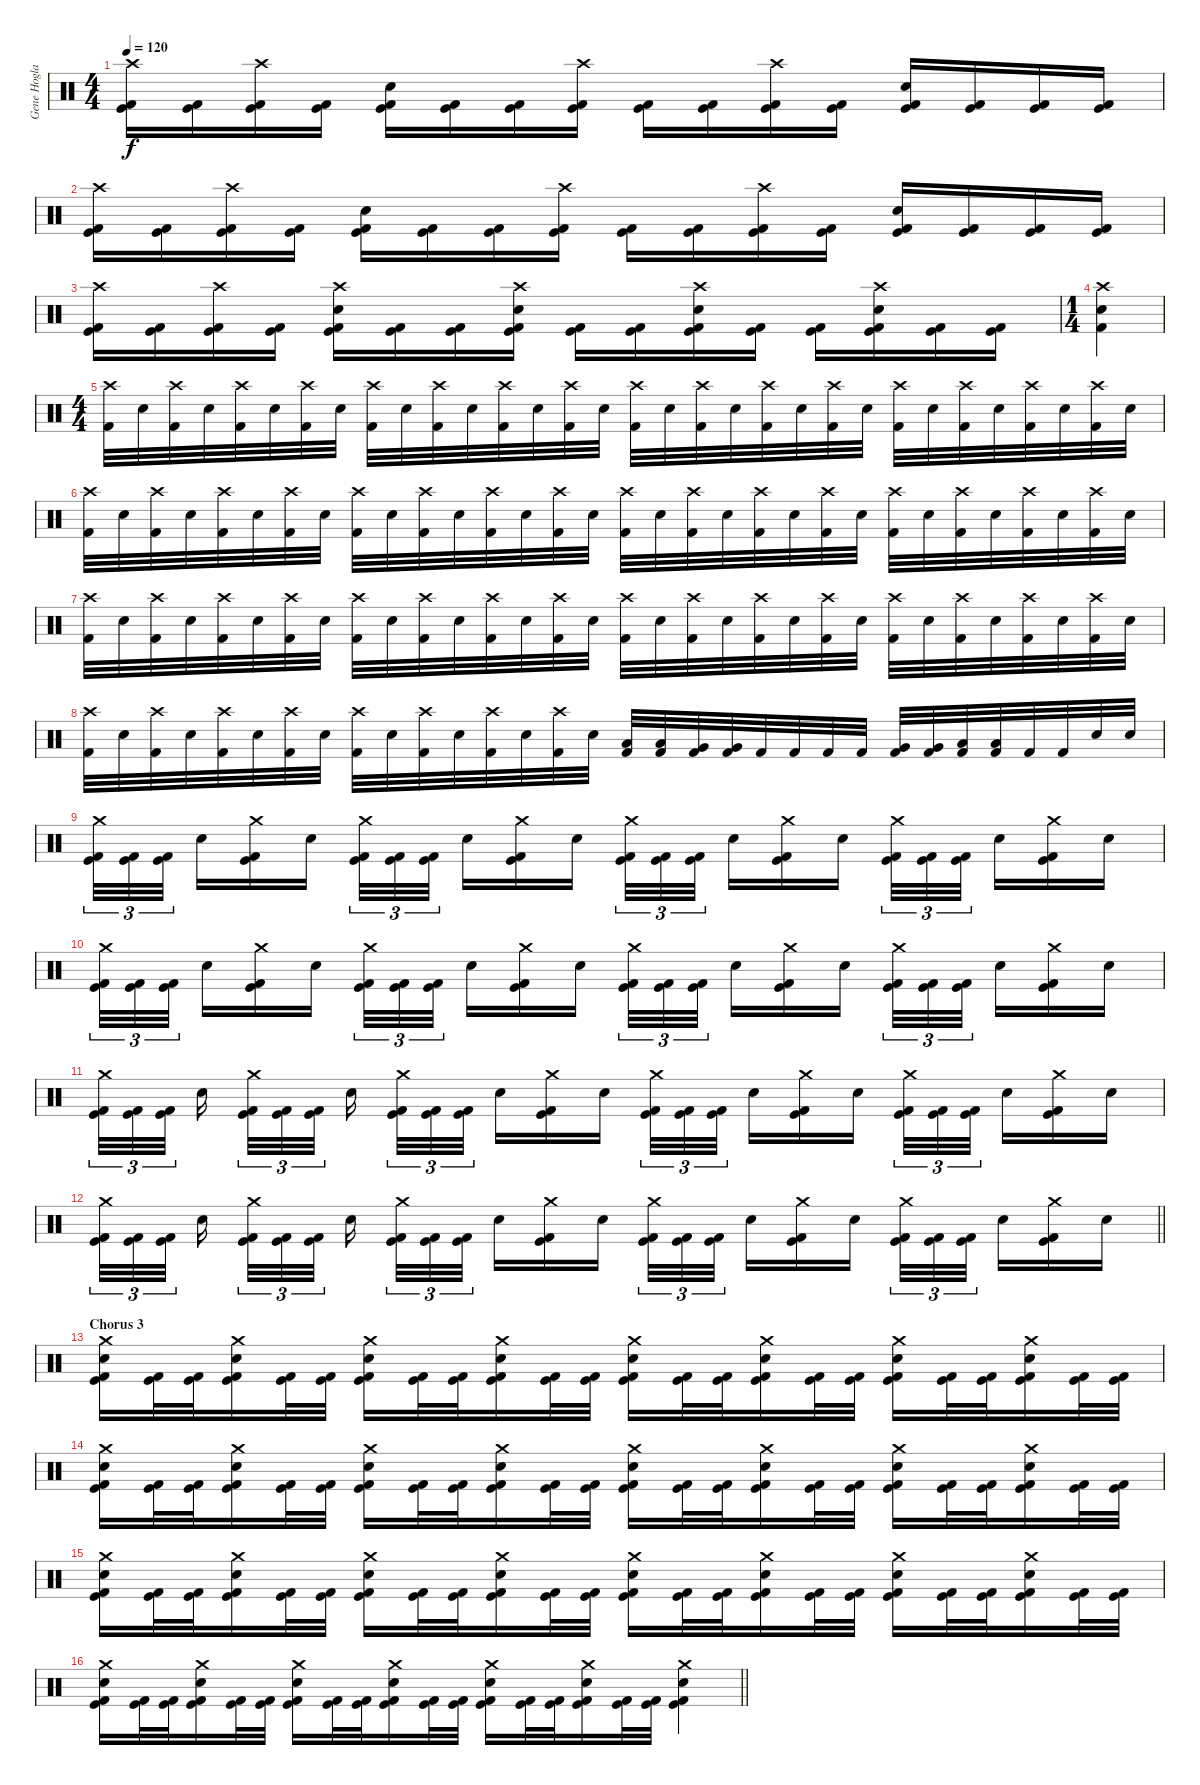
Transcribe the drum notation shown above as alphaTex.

\track ("Gene Hogland" "Gene Hogla") {instrument percussion}
\staff {score}
\articulation defaults
\ts (4 4)
\tempo 120
\clef neutral
\ks c
("Crash high (hit)" "Kick (hit)" "Kick (hit) 2").16{dy f} ("Kick (hit)" "Kick (hit) 2").16 ("Crash high (hit)" "Kick (hit)" "Kick (hit) 2").16 ("Kick (hit)" "Kick (hit) 2").16 ("Electric Snare (hit)" "Kick (hit)" "Kick (hit) 2").16 ("Kick (hit)" "Kick (hit) 2").16 ("Kick (hit)" "Kick (hit) 2").16 ("Crash high (hit)" "Kick (hit)" "Kick (hit) 2").16 ("Kick (hit)" "Kick (hit) 2").16 ("Kick (hit)" "Kick (hit) 2").16 ("Crash high (hit)" "Kick (hit)" "Kick (hit) 2").16 ("Kick (hit)" "Kick (hit) 2").16 ("Electric Snare (hit)" "Kick (hit)" "Kick (hit) 2").16 ("Kick (hit)" "Kick (hit) 2").16 ("Kick (hit)" "Kick (hit) 2").16 ("Kick (hit)" "Kick (hit) 2").16 |
("Crash high (hit)" "Kick (hit)" "Kick (hit) 2").16 ("Kick (hit)" "Kick (hit) 2").16 ("Crash high (hit)" "Kick (hit)" "Kick (hit) 2").16 ("Kick (hit)" "Kick (hit) 2").16 ("Electric Snare (hit)" "Kick (hit)" "Kick (hit) 2").16 ("Kick (hit)" "Kick (hit) 2").16 ("Kick (hit)" "Kick (hit) 2").16 ("Crash high (hit)" "Kick (hit)" "Kick (hit) 2").16 ("Kick (hit)" "Kick (hit) 2").16 ("Kick (hit)" "Kick (hit) 2").16 ("Crash high (hit)" "Kick (hit)" "Kick (hit) 2").16 ("Kick (hit)" "Kick (hit) 2").16 ("Electric Snare (hit)" "Kick (hit)" "Kick (hit) 2").16 ("Kick (hit)" "Kick (hit) 2").16 ("Kick (hit)" "Kick (hit) 2").16 ("Kick (hit)" "Kick (hit) 2").16 |
("Crash high (hit)" "Kick (hit)" "Kick (hit) 2").16 ("Kick (hit)" "Kick (hit) 2").16 ("Crash high (hit)" "Kick (hit)" "Kick (hit) 2").16 ("Kick (hit)" "Kick (hit) 2").16 ("Crash high (hit)" "Electric Snare (hit)" "Kick (hit)" "Kick (hit) 2").16 ("Kick (hit)" "Kick (hit) 2").16 ("Kick (hit)" "Kick (hit) 2").16 ("Crash high (hit)" "Electric Snare (hit)" "Kick (hit)" "Kick (hit) 2").16 ("Kick (hit)" "Kick (hit) 2").16 ("Kick (hit)" "Kick (hit) 2").16 ("Crash high (hit)" "Electric Snare (hit)" "Kick (hit)" "Kick (hit) 2").16 ("Kick (hit)" "Kick (hit) 2").16 ("Kick (hit)" "Kick (hit) 2").16 ("Crash high (hit)" "Electric Snare (hit)" "Kick (hit)" "Kick (hit) 2").16 ("Kick (hit)" "Kick (hit) 2").16 ("Kick (hit)" "Kick (hit) 2").16 |
\ts (1 4)
("Crash high (hit)" "Kick (hit) 2" "Electric Snare (hit)").4 |
\ts (4 4)
("Crash high (hit)" "Kick (hit) 2").32 "Electric Snare (hit)".32 ("Crash high (hit)" "Kick (hit) 2").32 "Electric Snare (hit)".32 ("Crash high (hit)" "Kick (hit) 2").32 "Electric Snare (hit)".32 ("Crash high (hit)" "Kick (hit) 2").32 "Electric Snare (hit)".32 ("Crash high (hit)" "Kick (hit) 2").32 "Electric Snare (hit)".32 ("Crash high (hit)" "Kick (hit) 2").32 "Electric Snare (hit)".32 ("Crash high (hit)" "Kick (hit) 2").32 "Electric Snare (hit)".32 ("Crash high (hit)" "Kick (hit) 2").32 "Electric Snare (hit)".32 ("Crash high (hit)" "Kick (hit) 2").32 "Electric Snare (hit)".32 ("Crash high (hit)" "Kick (hit) 2").32 "Electric Snare (hit)".32 ("Crash high (hit)" "Kick (hit) 2").32 "Electric Snare (hit)".32 ("Crash high (hit)" "Kick (hit) 2").32 "Electric Snare (hit)".32 ("Crash high (hit)" "Kick (hit) 2").32 "Electric Snare (hit)".32 ("Crash high (hit)" "Kick (hit) 2").32 "Electric Snare (hit)".32 ("Crash high (hit)" "Kick (hit) 2").32 "Electric Snare (hit)".32 ("Crash high (hit)" "Kick (hit) 2").32 "Electric Snare (hit)".32 |
("Crash high (hit)" "Kick (hit) 2").32 "Electric Snare (hit)".32 ("Crash high (hit)" "Kick (hit) 2").32 "Electric Snare (hit)".32 ("Crash high (hit)" "Kick (hit) 2").32 "Electric Snare (hit)".32 ("Crash high (hit)" "Kick (hit) 2").32 "Electric Snare (hit)".32 ("Crash high (hit)" "Kick (hit) 2").32 "Electric Snare (hit)".32 ("Crash high (hit)" "Kick (hit) 2").32 "Electric Snare (hit)".32 ("Crash high (hit)" "Kick (hit) 2").32 "Electric Snare (hit)".32 ("Crash high (hit)" "Kick (hit) 2").32 "Electric Snare (hit)".32 ("Crash high (hit)" "Kick (hit) 2").32 "Electric Snare (hit)".32 ("Crash high (hit)" "Kick (hit) 2").32 "Electric Snare (hit)".32 ("Crash high (hit)" "Kick (hit) 2").32 "Electric Snare (hit)".32 ("Crash high (hit)" "Kick (hit) 2").32 "Electric Snare (hit)".32 ("Crash high (hit)" "Kick (hit) 2").32 "Electric Snare (hit)".32 ("Crash high (hit)" "Kick (hit) 2").32 "Electric Snare (hit)".32 ("Crash high (hit)" "Kick (hit) 2").32 "Electric Snare (hit)".32 ("Crash high (hit)" "Kick (hit) 2").32 "Electric Snare (hit)".32 |
("Crash high (hit)" "Kick (hit) 2").32 "Electric Snare (hit)".32 ("Crash high (hit)" "Kick (hit) 2").32 "Electric Snare (hit)".32 ("Crash high (hit)" "Kick (hit) 2").32 "Electric Snare (hit)".32 ("Crash high (hit)" "Kick (hit) 2").32 "Electric Snare (hit)".32 ("Crash high (hit)" "Kick (hit) 2").32 "Electric Snare (hit)".32 ("Crash high (hit)" "Kick (hit) 2").32 "Electric Snare (hit)".32 ("Crash high (hit)" "Kick (hit) 2").32 "Electric Snare (hit)".32 ("Crash high (hit)" "Kick (hit) 2").32 "Electric Snare (hit)".32 ("Crash high (hit)" "Kick (hit) 2").32 "Electric Snare (hit)".32 ("Crash high (hit)" "Kick (hit) 2").32 "Electric Snare (hit)".32 ("Crash high (hit)" "Kick (hit) 2").32 "Electric Snare (hit)".32 ("Crash high (hit)" "Kick (hit) 2").32 "Electric Snare (hit)".32 ("Crash high (hit)" "Kick (hit) 2").32 "Electric Snare (hit)".32 ("Crash high (hit)" "Kick (hit) 2").32 "Electric Snare (hit)".32 ("Crash high (hit)" "Kick (hit) 2").32 "Electric Snare (hit)".32 ("Crash high (hit)" "Kick (hit) 2").32 "Electric Snare (hit)".32 |
("Crash high (hit)" "Kick (hit) 2").32 "Electric Snare (hit)".32 ("Crash high (hit)" "Kick (hit) 2").32 "Electric Snare (hit)".32 ("Crash high (hit)" "Kick (hit) 2").32 "Electric Snare (hit)".32 ("Crash high (hit)" "Kick (hit) 2").32 "Electric Snare (hit)".32 ("Crash high (hit)" "Kick (hit) 2").32 "Electric Snare (hit)".32 ("Crash high (hit)" "Kick (hit) 2").32 "Electric Snare (hit)".32 ("Crash high (hit)" "Kick (hit) 2").32 "Electric Snare (hit)".32 ("Crash high (hit)" "Kick (hit) 2").32 "Electric Snare (hit)".32 ("Low Tom (hit)" "Kick (hit) 2").32 ("Low Tom (hit)" "Kick (hit) 2").32 ("Very Low Tom (hit)" "Kick (hit) 2").32 ("Very Low Tom (hit)" "Kick (hit) 2").32 "Kick (hit) 2".32 "Kick (hit) 2".32 "Kick (hit) 2".32 "Kick (hit) 2".32 ("Very Low Tom (hit)" "Kick (hit) 2").32 ("Very Low Tom (hit)" "Kick (hit) 2").32 ("Low Floor Tom (hit)" "Kick (hit) 2").32 ("Low Floor Tom (hit)" "Kick (hit) 2").32 "Kick (hit) 2".32 "Kick (hit) 2".32 "Electric Snare (hit)".32 "Electric Snare (hit)".32 |
("Crash medium (hit)" "Kick (hit)" "Kick (hit) 2").32{tu (3 2)} ("Kick (hit)" "Kick (hit) 2").32{tu (3 2)} ("Kick (hit)" "Kick (hit) 2").32{tu (3 2)} "Electric Snare (hit)".16 ("Crash medium (hit)" "Kick (hit)" "Kick (hit) 2").16 "Electric Snare (hit)".16 ("Crash medium (hit)" "Kick (hit)" "Kick (hit) 2").32{tu (3 2)} ("Kick (hit)" "Kick (hit) 2").32{tu (3 2)} ("Kick (hit)" "Kick (hit) 2").32{tu (3 2)} "Electric Snare (hit)".16 ("Crash medium (hit)" "Kick (hit)" "Kick (hit) 2").16 "Electric Snare (hit)".16 ("Crash medium (hit)" "Kick (hit)" "Kick (hit) 2").32{tu (3 2)} ("Kick (hit)" "Kick (hit) 2").32{tu (3 2)} ("Kick (hit)" "Kick (hit) 2").32{tu (3 2)} "Electric Snare (hit)".16 ("Crash medium (hit)" "Kick (hit)" "Kick (hit) 2").16 "Electric Snare (hit)".16 ("Crash medium (hit)" "Kick (hit)" "Kick (hit) 2").32{tu (3 2)} ("Kick (hit)" "Kick (hit) 2").32{tu (3 2)} ("Kick (hit)" "Kick (hit) 2").32{tu (3 2)} "Electric Snare (hit)".16 ("Crash medium (hit)" "Kick (hit)" "Kick (hit) 2").16 "Electric Snare (hit)".16 |
("Crash medium (hit)" "Kick (hit)" "Kick (hit) 2").32{tu (3 2)} ("Kick (hit)" "Kick (hit) 2").32{tu (3 2)} ("Kick (hit)" "Kick (hit) 2").32{tu (3 2)} "Electric Snare (hit)".16 ("Crash medium (hit)" "Kick (hit)" "Kick (hit) 2").16 "Electric Snare (hit)".16 ("Crash medium (hit)" "Kick (hit)" "Kick (hit) 2").32{tu (3 2)} ("Kick (hit)" "Kick (hit) 2").32{tu (3 2)} ("Kick (hit)" "Kick (hit) 2").32{tu (3 2)} "Electric Snare (hit)".16 ("Crash medium (hit)" "Kick (hit)" "Kick (hit) 2").16 "Electric Snare (hit)".16 ("Crash medium (hit)" "Kick (hit)" "Kick (hit) 2").32{tu (3 2)} ("Kick (hit)" "Kick (hit) 2").32{tu (3 2)} ("Kick (hit)" "Kick (hit) 2").32{tu (3 2)} "Electric Snare (hit)".16 ("Crash medium (hit)" "Kick (hit)" "Kick (hit) 2").16 "Electric Snare (hit)".16 ("Crash medium (hit)" "Kick (hit)" "Kick (hit) 2").32{tu (3 2)} ("Kick (hit)" "Kick (hit) 2").32{tu (3 2)} ("Kick (hit)" "Kick (hit) 2").32{tu (3 2)} "Electric Snare (hit)".16 ("Crash medium (hit)" "Kick (hit)" "Kick (hit) 2").16 "Electric Snare (hit)".16 |
("Crash medium (hit)" "Kick (hit)" "Kick (hit) 2").32{tu (3 2)} ("Kick (hit)" "Kick (hit) 2").32{tu (3 2)} ("Kick (hit)" "Kick (hit) 2").32{tu (3 2)} "Electric Snare (hit)".16 ("Crash medium (hit)" "Kick (hit)" "Kick (hit) 2").32{tu (3 2)} ("Kick (hit)" "Kick (hit) 2").32{tu (3 2)} ("Kick (hit)" "Kick (hit) 2").32{tu (3 2)} "Electric Snare (hit)".16 ("Crash medium (hit)" "Kick (hit)" "Kick (hit) 2").32{tu (3 2)} ("Kick (hit)" "Kick (hit) 2").32{tu (3 2)} ("Kick (hit)" "Kick (hit) 2").32{tu (3 2)} "Electric Snare (hit)".16 ("Crash medium (hit)" "Kick (hit)" "Kick (hit) 2").16 "Electric Snare (hit)".16 ("Crash medium (hit)" "Kick (hit)" "Kick (hit) 2").32{tu (3 2)} ("Kick (hit)" "Kick (hit) 2").32{tu (3 2)} ("Kick (hit)" "Kick (hit) 2").32{tu (3 2)} "Electric Snare (hit)".16 ("Crash medium (hit)" "Kick (hit)" "Kick (hit) 2").16 "Electric Snare (hit)".16 ("Crash medium (hit)" "Kick (hit)" "Kick (hit) 2").32{tu (3 2)} ("Kick (hit)" "Kick (hit) 2").32{tu (3 2)} ("Kick (hit)" "Kick (hit) 2").32{tu (3 2)} "Electric Snare (hit)".16 ("Crash medium (hit)" "Kick (hit)" "Kick (hit) 2").16 "Electric Snare (hit)".16 |
\barLineRight lightlight
("Crash medium (hit)" "Kick (hit)" "Kick (hit) 2").32{tu (3 2)} ("Kick (hit)" "Kick (hit) 2").32{tu (3 2)} ("Kick (hit)" "Kick (hit) 2").32{tu (3 2)} "Electric Snare (hit)".16 ("Crash medium (hit)" "Kick (hit)" "Kick (hit) 2").32{tu (3 2)} ("Kick (hit)" "Kick (hit) 2").32{tu (3 2)} ("Kick (hit)" "Kick (hit) 2").32{tu (3 2)} "Electric Snare (hit)".16 ("Crash medium (hit)" "Kick (hit)" "Kick (hit) 2").32{tu (3 2)} ("Kick (hit)" "Kick (hit) 2").32{tu (3 2)} ("Kick (hit)" "Kick (hit) 2").32{tu (3 2)} "Electric Snare (hit)".16 ("Crash medium (hit)" "Kick (hit)" "Kick (hit) 2").16 "Electric Snare (hit)".16 ("Crash medium (hit)" "Kick (hit)" "Kick (hit) 2").32{tu (3 2)} ("Kick (hit)" "Kick (hit) 2").32{tu (3 2)} ("Kick (hit)" "Kick (hit) 2").32{tu (3 2)} "Electric Snare (hit)".16 ("Crash medium (hit)" "Kick (hit)" "Kick (hit) 2").16 "Electric Snare (hit)".16 ("Crash medium (hit)" "Kick (hit)" "Kick (hit) 2").32{tu (3 2)} ("Kick (hit)" "Kick (hit) 2").32{tu (3 2)} ("Kick (hit)" "Kick (hit) 2").32{tu (3 2)} "Electric Snare (hit)".16 ("Crash medium (hit)" "Kick (hit)" "Kick (hit) 2").16 "Electric Snare (hit)".16 |
\section ("" "Chorus 3")
("Crash medium (hit)" "Electric Snare (hit)" "Kick (hit)" "Kick (hit) 2").16 ("Kick (hit)" "Kick (hit) 2").32 ("Kick (hit)" "Kick (hit) 2").32 ("Crash medium (hit)" "Electric Snare (hit)" "Kick (hit)" "Kick (hit) 2").16 ("Kick (hit)" "Kick (hit) 2").32 ("Kick (hit)" "Kick (hit) 2").32 ("Crash medium (hit)" "Electric Snare (hit)" "Kick (hit)" "Kick (hit) 2").16 ("Kick (hit)" "Kick (hit) 2").32 ("Kick (hit)" "Kick (hit) 2").32 ("Crash medium (hit)" "Electric Snare (hit)" "Kick (hit)" "Kick (hit) 2").16 ("Kick (hit)" "Kick (hit) 2").32 ("Kick (hit)" "Kick (hit) 2").32 ("Crash medium (hit)" "Electric Snare (hit)" "Kick (hit)" "Kick (hit) 2").16 ("Kick (hit)" "Kick (hit) 2").32 ("Kick (hit)" "Kick (hit) 2").32 ("Crash medium (hit)" "Electric Snare (hit)" "Kick (hit)" "Kick (hit) 2").16 ("Kick (hit)" "Kick (hit) 2").32 ("Kick (hit)" "Kick (hit) 2").32 ("Crash medium (hit)" "Electric Snare (hit)" "Kick (hit)" "Kick (hit) 2").16 ("Kick (hit)" "Kick (hit) 2").32 ("Kick (hit)" "Kick (hit) 2").32 ("Crash medium (hit)" "Electric Snare (hit)" "Kick (hit)" "Kick (hit) 2").16 ("Kick (hit)" "Kick (hit) 2").32 ("Kick (hit)" "Kick (hit) 2").32 |
("Crash medium (hit)" "Electric Snare (hit)" "Kick (hit)" "Kick (hit) 2").16 ("Kick (hit)" "Kick (hit) 2").32 ("Kick (hit)" "Kick (hit) 2").32 ("Crash medium (hit)" "Electric Snare (hit)" "Kick (hit)" "Kick (hit) 2").16 ("Kick (hit)" "Kick (hit) 2").32 ("Kick (hit)" "Kick (hit) 2").32 ("Crash medium (hit)" "Electric Snare (hit)" "Kick (hit)" "Kick (hit) 2").16 ("Kick (hit)" "Kick (hit) 2").32 ("Kick (hit)" "Kick (hit) 2").32 ("Crash medium (hit)" "Electric Snare (hit)" "Kick (hit)" "Kick (hit) 2").16 ("Kick (hit)" "Kick (hit) 2").32 ("Kick (hit)" "Kick (hit) 2").32 ("Crash medium (hit)" "Electric Snare (hit)" "Kick (hit)" "Kick (hit) 2").16 ("Kick (hit)" "Kick (hit) 2").32 ("Kick (hit)" "Kick (hit) 2").32 ("Crash medium (hit)" "Electric Snare (hit)" "Kick (hit)" "Kick (hit) 2").16 ("Kick (hit)" "Kick (hit) 2").32 ("Kick (hit)" "Kick (hit) 2").32 ("Crash medium (hit)" "Electric Snare (hit)" "Kick (hit)" "Kick (hit) 2").16 ("Kick (hit)" "Kick (hit) 2").32 ("Kick (hit)" "Kick (hit) 2").32 ("Crash medium (hit)" "Electric Snare (hit)" "Kick (hit)" "Kick (hit) 2").16 ("Kick (hit)" "Kick (hit) 2").32 ("Kick (hit)" "Kick (hit) 2").32 |
("Crash medium (hit)" "Electric Snare (hit)" "Kick (hit)" "Kick (hit) 2").16 ("Kick (hit)" "Kick (hit) 2").32 ("Kick (hit)" "Kick (hit) 2").32 ("Crash medium (hit)" "Electric Snare (hit)" "Kick (hit)" "Kick (hit) 2").16 ("Kick (hit)" "Kick (hit) 2").32 ("Kick (hit)" "Kick (hit) 2").32 ("Crash medium (hit)" "Electric Snare (hit)" "Kick (hit)" "Kick (hit) 2").16 ("Kick (hit)" "Kick (hit) 2").32 ("Kick (hit)" "Kick (hit) 2").32 ("Crash medium (hit)" "Electric Snare (hit)" "Kick (hit)" "Kick (hit) 2").16 ("Kick (hit)" "Kick (hit) 2").32 ("Kick (hit)" "Kick (hit) 2").32 ("Crash medium (hit)" "Electric Snare (hit)" "Kick (hit)" "Kick (hit) 2").16 ("Kick (hit)" "Kick (hit) 2").32 ("Kick (hit)" "Kick (hit) 2").32 ("Crash medium (hit)" "Electric Snare (hit)" "Kick (hit)" "Kick (hit) 2").16 ("Kick (hit)" "Kick (hit) 2").32 ("Kick (hit)" "Kick (hit) 2").32 ("Crash medium (hit)" "Electric Snare (hit)" "Kick (hit)" "Kick (hit) 2").16 ("Kick (hit)" "Kick (hit) 2").32 ("Kick (hit)" "Kick (hit) 2").32 ("Crash medium (hit)" "Electric Snare (hit)" "Kick (hit)" "Kick (hit) 2").16 ("Kick (hit)" "Kick (hit) 2").32 ("Kick (hit)" "Kick (hit) 2").32 |
\barLineRight lightlight
("Crash medium (hit)" "Electric Snare (hit)" "Kick (hit)" "Kick (hit) 2").16 ("Kick (hit)" "Kick (hit) 2").32 ("Kick (hit)" "Kick (hit) 2").32 ("Crash medium (hit)" "Electric Snare (hit)" "Kick (hit)" "Kick (hit) 2").16 ("Kick (hit)" "Kick (hit) 2").32 ("Kick (hit)" "Kick (hit) 2").32 ("Crash medium (hit)" "Electric Snare (hit)" "Kick (hit)" "Kick (hit) 2").16 ("Kick (hit)" "Kick (hit) 2").32 ("Kick (hit)" "Kick (hit) 2").32 ("Crash medium (hit)" "Electric Snare (hit)" "Kick (hit)" "Kick (hit) 2").16 ("Kick (hit)" "Kick (hit) 2").32 ("Kick (hit)" "Kick (hit) 2").32 ("Crash medium (hit)" "Electric Snare (hit)" "Kick (hit)" "Kick (hit) 2").16 ("Kick (hit)" "Kick (hit) 2").32 ("Kick (hit)" "Kick (hit) 2").32 ("Crash medium (hit)" "Electric Snare (hit)" "Kick (hit)" "Kick (hit) 2").16 ("Kick (hit)" "Kick (hit) 2").32 ("Kick (hit)" "Kick (hit) 2").32 ("Crash medium (hit)" "Electric Snare (hit)" "Kick (hit)" "Kick (hit) 2").4
